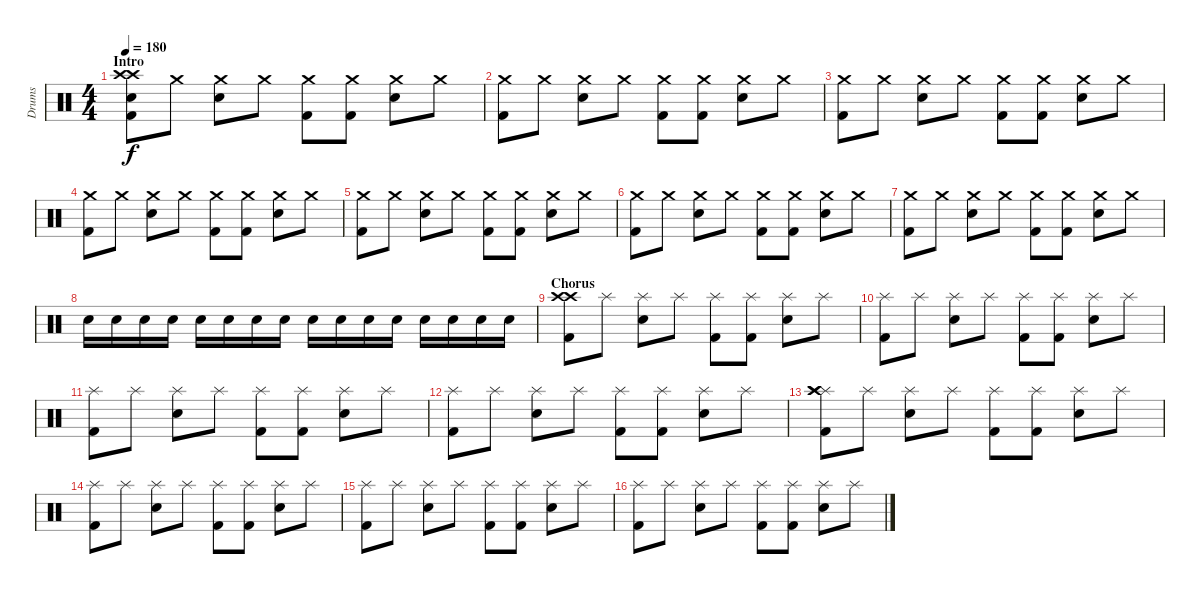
\track ("Drums" "Drums") {instrument percussion}
\staff {score}
\articulation defaults
\ts (4 4)
\section ("" "Intro")
\tempo 180
\clef neutral
\ks c
("Kick (hit) 2" "Electric Snare (hit)" "Crash high (hit)" "Crash high (hit)").8{dy f} "Crash medium (hit)".8 ("Crash medium (hit)" "Electric Snare (hit)").8 "Crash medium (hit)".8 ("Crash medium (hit)" "Kick (hit) 2").8 ("Crash medium (hit)" "Kick (hit) 2").8 ("Crash medium (hit)" "Electric Snare (hit)").8 "Crash medium (hit)".8 |
("Crash medium (hit)" "Kick (hit) 2").8 "Crash medium (hit)".8 ("Crash medium (hit)" "Electric Snare (hit)").8 "Crash medium (hit)".8 ("Crash medium (hit)" "Kick (hit) 2").8 ("Crash medium (hit)" "Kick (hit) 2").8 ("Crash medium (hit)" "Electric Snare (hit)").8 "Crash medium (hit)".8 |
("Crash medium (hit)" "Kick (hit) 2").8 "Crash medium (hit)".8 ("Crash medium (hit)" "Electric Snare (hit)").8 "Crash medium (hit)".8 ("Crash medium (hit)" "Kick (hit) 2").8 ("Crash medium (hit)" "Kick (hit) 2").8 ("Crash medium (hit)" "Electric Snare (hit)").8 "Crash medium (hit)".8 |
("Crash medium (hit)" "Kick (hit) 2").8 "Crash medium (hit)".8 ("Crash medium (hit)" "Electric Snare (hit)").8 "Crash medium (hit)".8 ("Crash medium (hit)" "Kick (hit) 2").8 ("Crash medium (hit)" "Kick (hit) 2").8 ("Crash medium (hit)" "Electric Snare (hit)").8 "Crash medium (hit)".8 |
("Crash medium (hit)" "Kick (hit) 2").8 "Crash medium (hit)".8 ("Crash medium (hit)" "Electric Snare (hit)").8 "Crash medium (hit)".8 ("Crash medium (hit)" "Kick (hit) 2").8 ("Crash medium (hit)" "Kick (hit) 2").8 ("Crash medium (hit)" "Electric Snare (hit)").8 "Crash medium (hit)".8 |
("Crash medium (hit)" "Kick (hit) 2").8 "Crash medium (hit)".8 ("Crash medium (hit)" "Electric Snare (hit)").8 "Crash medium (hit)".8 ("Crash medium (hit)" "Kick (hit) 2").8 ("Crash medium (hit)" "Kick (hit) 2").8 ("Crash medium (hit)" "Electric Snare (hit)").8 "Crash medium (hit)".8 |
("Crash medium (hit)" "Kick (hit) 2").8 "Crash medium (hit)".8 ("Crash medium (hit)" "Electric Snare (hit)").8 "Crash medium (hit)".8 ("Crash medium (hit)" "Kick (hit) 2").8 ("Crash medium (hit)" "Kick (hit) 2").8 ("Crash medium (hit)" "Electric Snare (hit)").8 "Crash medium (hit)".8 |
"Electric Snare (hit)".16{volume 6} "Electric Snare (hit)".16{volume 7} "Electric Snare (hit)".16{volume 8} "Electric Snare (hit)".16{volume 9} "Electric Snare (hit)".16{volume 10} "Electric Snare (hit)".16{volume 11} "Electric Snare (hit)".16{volume 12} "Electric Snare (hit)".16{volume 13} "Electric Snare (hit)".16 "Electric Snare (hit)".16 "Electric Snare (hit)".16 "Electric Snare (hit)".16 "Electric Snare (hit)".16 "Electric Snare (hit)".16 "Electric Snare (hit)".16 "Electric Snare (hit)".16 |
\section ("" "Chorus")
("Kick (hit) 2" "Crash high (hit)" "Crash high (hit)").8 "Splash (hit)".8 ("Splash (hit)" "Electric Snare (hit)").8 "Splash (hit)".8 ("Splash (hit)" "Kick (hit) 2").8 ("Splash (hit)" "Kick (hit) 2").8 ("Splash (hit)" "Electric Snare (hit)").8 "Splash (hit)".8 |
("Splash (hit)" "Kick (hit) 2").8 "Splash (hit)".8 ("Splash (hit)" "Electric Snare (hit)").8 "Splash (hit)".8 ("Splash (hit)" "Kick (hit) 2").8 ("Splash (hit)" "Kick (hit) 2").8 ("Splash (hit)" "Electric Snare (hit)").8 "Splash (hit)".8 |
("Splash (hit)" "Kick (hit) 2").8 "Splash (hit)".8 ("Splash (hit)" "Electric Snare (hit)").8 "Splash (hit)".8 ("Splash (hit)" "Kick (hit) 2").8 ("Splash (hit)" "Kick (hit) 2").8 ("Splash (hit)" "Electric Snare (hit)").8 "Splash (hit)".8 |
("Splash (hit)" "Kick (hit) 2").8 "Splash (hit)".8 ("Splash (hit)" "Electric Snare (hit)").8 "Splash (hit)".8 ("Splash (hit)" "Kick (hit) 2").8 ("Splash (hit)" "Kick (hit) 2").8 ("Splash (hit)" "Electric Snare (hit)").8 "Splash (hit)".8 |
("Splash (hit)" "Kick (hit) 2" "Crash high (hit)" "Crash high (hit)").8 "Splash (hit)".8 ("Splash (hit)" "Electric Snare (hit)").8 "Splash (hit)".8 ("Splash (hit)" "Kick (hit) 2").8 ("Splash (hit)" "Kick (hit) 2").8 ("Splash (hit)" "Electric Snare (hit)").8 "Splash (hit)".8 |
("Splash (hit)" "Kick (hit) 2").8 "Splash (hit)".8 ("Splash (hit)" "Electric Snare (hit)").8 "Splash (hit)".8 ("Splash (hit)" "Kick (hit) 2").8 ("Splash (hit)" "Kick (hit) 2").8 ("Splash (hit)" "Electric Snare (hit)").8 "Splash (hit)".8 |
("Splash (hit)" "Kick (hit) 2").8 "Splash (hit)".8 ("Splash (hit)" "Electric Snare (hit)").8 "Splash (hit)".8 ("Splash (hit)" "Kick (hit) 2").8 ("Splash (hit)" "Kick (hit) 2").8 ("Splash (hit)" "Electric Snare (hit)").8 "Splash (hit)".8 |
("Splash (hit)" "Kick (hit) 2").8 "Splash (hit)".8 ("Splash (hit)" "Electric Snare (hit)").8 "Splash (hit)".8 ("Splash (hit)" "Kick (hit) 2").8 ("Splash (hit)" "Kick (hit) 2").8 ("Splash (hit)" "Electric Snare (hit)").8 "Splash (hit)".8
